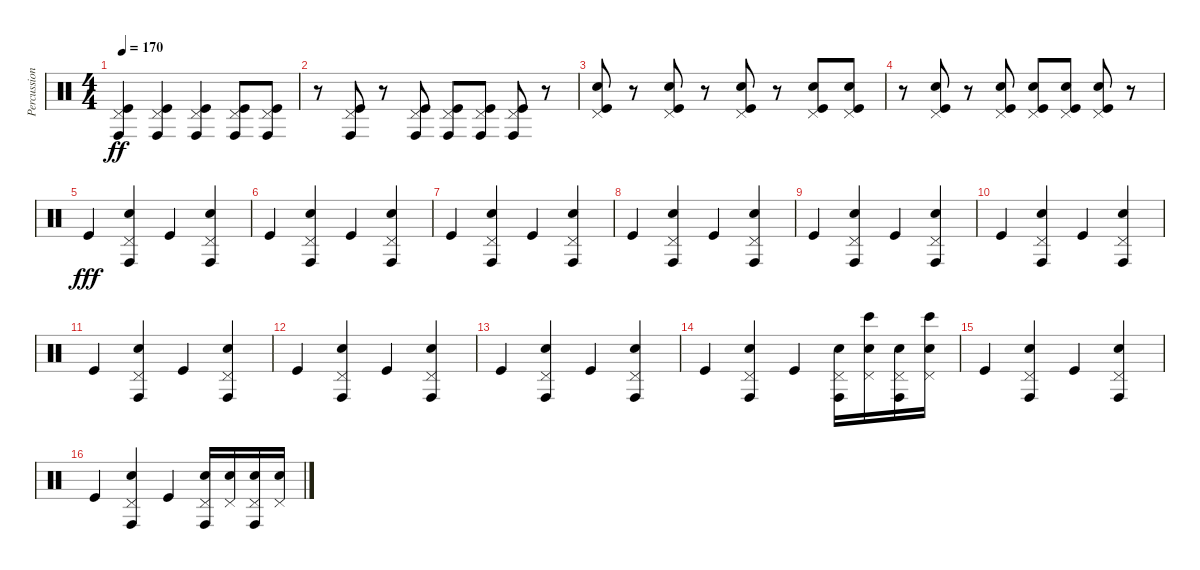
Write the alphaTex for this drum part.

\track ("Percussion" "Percussion") {instrument percussion}
\staff {score}
\articulation defaults
\ts (4 4)
\tempo 170
\clef neutral
\ks c
("Pedal Hi-Hat (hit)" "Conga high (hit)" "Kick (hit)").4{dy ff} ("Pedal Hi-Hat (hit)" "Conga high (hit)" "Kick (hit)").4 ("Pedal Hi-Hat (hit)" "Conga high (hit)" "Kick (hit)").4 ("Pedal Hi-Hat (hit)" "Conga high (hit)" "Kick (hit)").8 ("Pedal Hi-Hat (hit)" "Conga high (hit)" "Kick (hit)").8 |
r.8 ("Pedal Hi-Hat (hit)" "Conga high (hit)" "Kick (hit)").8 r.8 ("Pedal Hi-Hat (hit)" "Conga high (hit)" "Kick (hit)").8 ("Pedal Hi-Hat (hit)" "Conga high (hit)" "Kick (hit)").8 ("Pedal Hi-Hat (hit)" "Conga high (hit)" "Kick (hit)").8 ("Pedal Hi-Hat (hit)" "Conga high (hit)" "Kick (hit)").8 r.8 |
("Pedal Hi-Hat (hit)" "Electric Snare (hit)" "Kick (hit)").8 r.8 ("Pedal Hi-Hat (hit)" "Electric Snare (hit)" "Kick (hit)").8 r.8 ("Pedal Hi-Hat (hit)" "Electric Snare (hit)" "Kick (hit)").8 r.8 ("Pedal Hi-Hat (hit)" "Electric Snare (hit)" "Kick (hit)").8 ("Pedal Hi-Hat (hit)" "Electric Snare (hit)" "Kick (hit)").8 |
r.8 ("Pedal Hi-Hat (hit)" "Electric Snare (hit)" "Kick (hit)").8 r.8 ("Pedal Hi-Hat (hit)" "Electric Snare (hit)" "Kick (hit)").8 ("Pedal Hi-Hat (hit)" "Electric Snare (hit)" "Kick (hit)").8 ("Pedal Hi-Hat (hit)" "Electric Snare (hit)" "Kick (hit)").8 ("Pedal Hi-Hat (hit)" "Electric Snare (hit)" "Kick (hit)").8 r.8 |
"Kick (hit)".4{dy fff} ("Pedal Hi-Hat (hit)" "Conga high (hit)" "Electric Snare (hit)").4 "Kick (hit)".4 ("Pedal Hi-Hat (hit)" "Conga high (hit)" "Electric Snare (hit)").4 |
"Kick (hit)".4 ("Pedal Hi-Hat (hit)" "Conga high (hit)" "Electric Snare (hit)").4 "Kick (hit)".4 ("Pedal Hi-Hat (hit)" "Conga high (hit)" "Electric Snare (hit)").4 |
"Kick (hit)".4 ("Pedal Hi-Hat (hit)" "Conga high (hit)" "Electric Snare (hit)").4 "Kick (hit)".4 ("Pedal Hi-Hat (hit)" "Conga high (hit)" "Electric Snare (hit)").4 |
"Kick (hit)".4 ("Pedal Hi-Hat (hit)" "Conga high (hit)" "Electric Snare (hit)").4 "Kick (hit)".4 ("Pedal Hi-Hat (hit)" "Conga high (hit)" "Electric Snare (hit)").4 |
"Kick (hit)".4 ("Pedal Hi-Hat (hit)" "Conga high (hit)" "Electric Snare (hit)").4 "Kick (hit)".4 ("Pedal Hi-Hat (hit)" "Conga high (hit)" "Electric Snare (hit)").4 |
"Kick (hit)".4 ("Pedal Hi-Hat (hit)" "Conga high (hit)" "Electric Snare (hit)").4 "Kick (hit)".4 ("Pedal Hi-Hat (hit)" "Conga high (hit)" "Electric Snare (hit)").4 |
"Kick (hit)".4 ("Pedal Hi-Hat (hit)" "Conga high (hit)" "Electric Snare (hit)").4 "Kick (hit)".4 ("Pedal Hi-Hat (hit)" "Conga high (hit)" "Electric Snare (hit)").4 |
"Kick (hit)".4 ("Pedal Hi-Hat (hit)" "Conga high (hit)" "Electric Snare (hit)").4 "Kick (hit)".4 ("Pedal Hi-Hat (hit)" "Conga high (hit)" "Electric Snare (hit)").4 |
"Kick (hit)".4 ("Pedal Hi-Hat (hit)" "Conga high (hit)" "Electric Snare (hit)").4 "Kick (hit)".4 ("Pedal Hi-Hat (hit)" "Conga high (hit)" "Electric Snare (hit)").4 |
"Kick (hit)".4 ("Pedal Hi-Hat (hit)" "Conga high (hit)" "Electric Snare (hit)").4 "Kick (hit)".4 ("Pedal Hi-Hat (hit)" "Conga high (hit)" "Electric Snare (hit)").16 ("Pedal Hi-Hat (hit)" "Bongo High (hit)" "Electric Snare (hit)").16 ("Pedal Hi-Hat (hit)" "Conga high (hit)" "Electric Snare (hit)").16 ("Pedal Hi-Hat (hit)" "Bongo High (hit)" "Electric Snare (hit)").16 |
"Kick (hit)".4 ("Pedal Hi-Hat (hit)" "Conga high (hit)" "Electric Snare (hit)").4 "Kick (hit)".4 ("Pedal Hi-Hat (hit)" "Conga high (hit)" "Electric Snare (hit)").4 |
"Kick (hit)".4 ("Pedal Hi-Hat (hit)" "Conga high (hit)" "Electric Snare (hit)").4 "Kick (hit)".4 ("Pedal Hi-Hat (hit)" "Conga high (hit)" "Electric Snare (hit)").16 ("Pedal Hi-Hat (hit)" "Electric Snare (hit)").16 ("Pedal Hi-Hat (hit)" "Conga high (hit)" "Electric Snare (hit)").16 ("Pedal Hi-Hat (hit)" "Electric Snare (hit)").16
